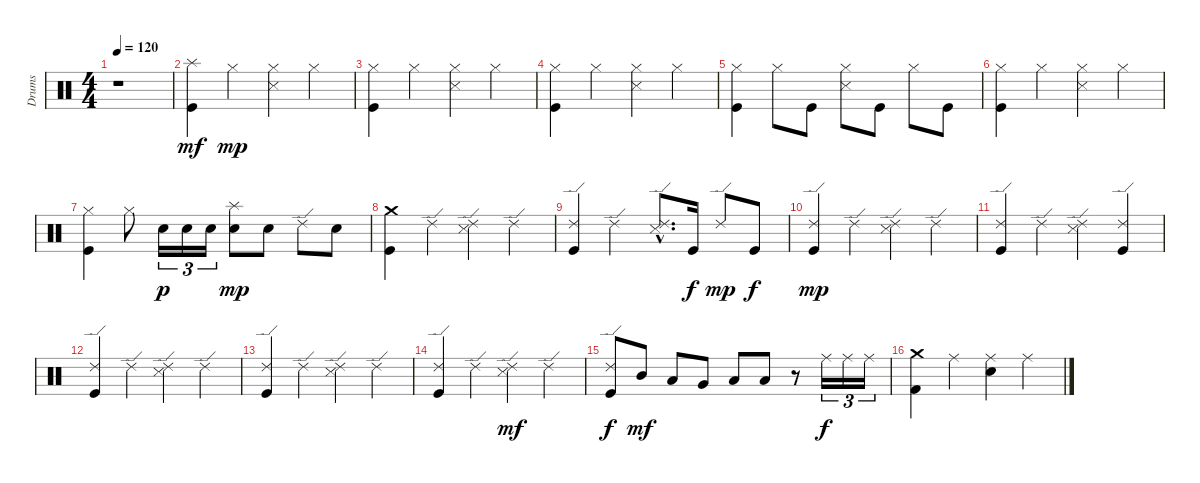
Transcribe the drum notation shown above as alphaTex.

\track ("Drums" "Drums") {instrument percussion}
\staff {score}
\articulation defaults
\ts (4 4)
\tempo 120
\clef neutral
\ks c
r.1{dy mf} |
("Kick (hit)" "Splash (hit)").4 "Hi-Hat (closed)".4{dy mp} ("Snare (side stick) 3" "Hi-Hat (closed)").4 "Hi-Hat (closed)".4 |
("Kick (hit)" "Hi-Hat (closed)").4 "Hi-Hat (closed)".4 ("Snare (side stick) 3" "Hi-Hat (closed)").4 "Hi-Hat (closed)".4 |
("Kick (hit)" "Hi-Hat (closed)").4 "Hi-Hat (closed)".4 ("Snare (side stick) 3" "Hi-Hat (closed)").4 "Hi-Hat (closed)".4 |
("Kick (hit)" "Hi-Hat (closed)").4 "Hi-Hat (closed)".8 "Kick (hit)".8 ("Snare (side stick) 3" "Hi-Hat (closed)").8 "Kick (hit)".8 "Hi-Hat (closed)".8 "Kick (hit)".8 |
("Kick (hit)" "Hi-Hat (closed)").4 "Hi-Hat (closed)".4 ("Snare (side stick) 3" "Hi-Hat (closed)").4 "Hi-Hat (closed)".4 |
("Kick (hit)" "Hi-Hat (closed)").4 "Hi-Hat (closed)".8 "Snare (hit) 2".16{tu (3 2) dy p} "Snare (hit) 2".16{tu (3 2)} "Snare (hit) 2".16{tu (3 2)} ("Snare (hit) 2" "Splash (hit)").8{dy mp} "Snare (hit) 2".8 "Ride (edge) 2".8 "Snare (hit) 2".8 |
("Kick (hit)" "Crash medium (hit)").4 "Ride (edge) 2".4 ("Snare (side stick) 3" "Ride (edge) 2").4 "Ride (edge) 2".4 |
("Kick (hit)" "Ride (edge) 2").4 "Ride (edge) 2".4 ("Snare (side stick) 3"{hac} "Ride (edge) 2"{hac}).8{d} "Kick (hit)".16{dy f} "Ride (edge) 2".8{dy mp} "Kick (hit)".8{dy f} |
("Kick (hit)" "Ride (edge) 2").4{dy mp} "Ride (edge) 2".4 ("Snare (side stick) 3" "Ride (edge) 2").4 "Ride (edge) 2".4 |
("Kick (hit)" "Ride (edge) 2").4 "Ride (edge) 2".4 ("Snare (side stick) 3" "Ride (edge) 2").4 ("Kick (hit)" "Ride (edge) 2").4 |
("Kick (hit)" "Ride (edge) 2").4 "Ride (edge) 2".4 ("Snare (side stick) 3" "Ride (edge) 2").4 "Ride (edge) 2".4 |
("Kick (hit)" "Ride (edge) 2").4 "Ride (edge) 2".4 ("Snare (side stick) 3" "Ride (edge) 2").4 "Ride (edge) 2".4 |
("Kick (hit)" "Ride (edge) 2").4 "Ride (edge) 2".4 ("Snare (side stick) 3" "Ride (edge) 2").4{dy mf} "Ride (edge) 2".4 |
("Kick (hit)" "Ride (edge) 2").8{dy f} "Mid Tom (hit)".8{dy mf} "Low Tom (hit)".8 "Very Low Tom (hit)".8 "Low Floor Tom (hit)".8 "Low Floor Tom (hit)".8 r.8 "Ride (middle)".16{tu (3 2) dy f} "Ride (middle)".16{tu (3 2)} "Ride (middle)".16{tu (3 2)} |
("Kick (hit) 2" "Crash medium (hit)").4 "Ride (middle)".4 ("Electric Snare (hit)" "Ride (middle)").4 "Ride (middle)".4
